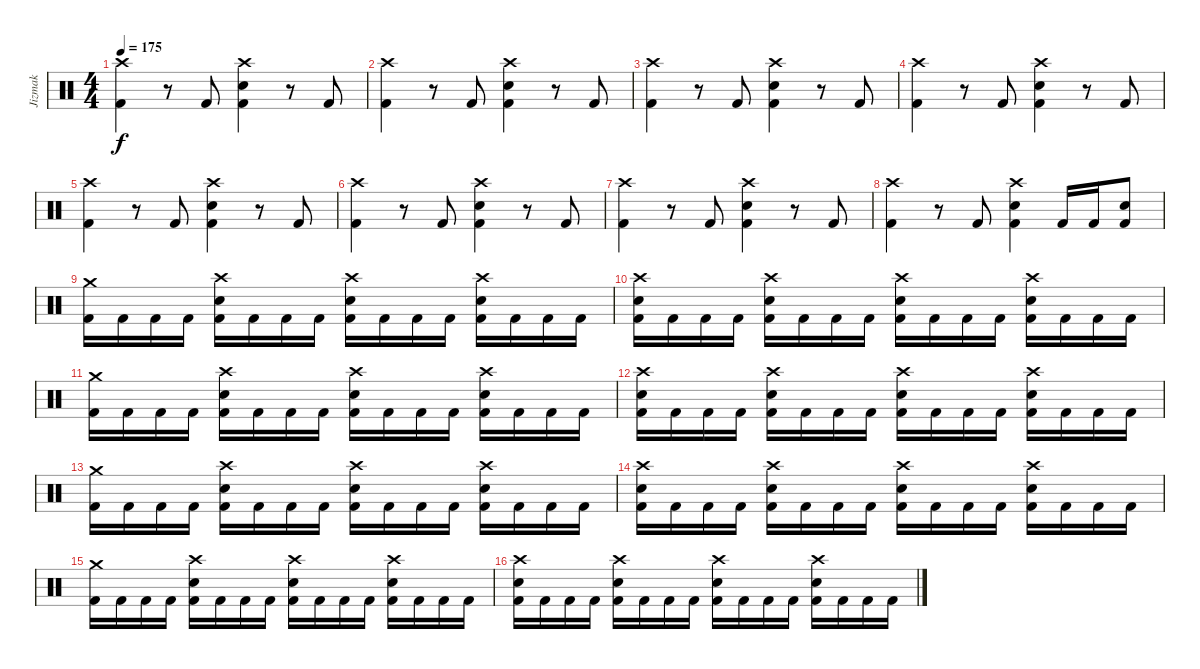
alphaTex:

\track ("Jizmak" "Jizmak") {instrument percussion}
\staff {score}
\articulation defaults
\ts (4 4)
\tempo 175
\clef neutral
\ks c
("Crash high (hit)" "Kick (hit) 2").4{dy f} r.8 "Kick (hit) 2".8 ("Crash high (hit)" "Snare (hit) 2" "Kick (hit) 2").4 r.8 "Kick (hit) 2".8 |
("Crash high (hit)" "Kick (hit) 2").4 r.8 "Kick (hit) 2".8 ("Crash high (hit)" "Snare (hit) 2" "Kick (hit) 2").4 r.8 "Kick (hit) 2".8 |
("Crash high (hit)" "Kick (hit) 2").4 r.8 "Kick (hit) 2".8 ("Crash high (hit)" "Snare (hit) 2" "Kick (hit) 2").4 r.8 "Kick (hit) 2".8 |
("Crash high (hit)" "Kick (hit) 2").4 r.8 "Kick (hit) 2".8 ("Crash high (hit)" "Snare (hit) 2" "Kick (hit) 2").4 r.8 "Kick (hit) 2".8 |
("Crash high (hit)" "Kick (hit) 2").4 r.8 "Kick (hit) 2".8 ("Crash high (hit)" "Snare (hit) 2" "Kick (hit) 2").4 r.8 "Kick (hit) 2".8 |
("Crash high (hit)" "Kick (hit) 2").4 r.8 "Kick (hit) 2".8 ("Crash high (hit)" "Snare (hit) 2" "Kick (hit) 2").4 r.8 "Kick (hit) 2".8 |
("Crash high (hit)" "Kick (hit) 2").4 r.8 "Kick (hit) 2".8 ("Crash high (hit)" "Snare (hit) 2" "Kick (hit) 2").4 r.8 "Kick (hit) 2".8 |
("Crash high (hit)" "Kick (hit) 2").4 r.8 "Kick (hit) 2".8 ("Crash high (hit)" "Snare (hit) 2" "Kick (hit) 2").4 "Kick (hit) 2".16 "Kick (hit) 2".16 ("Snare (hit) 2" "Kick (hit) 2").8 |
("Crash medium (hit)" "Kick (hit) 2").16 "Kick (hit) 2".16 "Kick (hit) 2".16 "Kick (hit) 2".16 ("Crash high (hit)" "Snare (hit) 2" "Kick (hit) 2").16 "Kick (hit) 2".16 "Kick (hit) 2".16 "Kick (hit) 2".16 ("Crash high (hit)" "Snare (hit) 2" "Kick (hit) 2").16 "Kick (hit) 2".16 "Kick (hit) 2".16 "Kick (hit) 2".16 ("Crash high (hit)" "Snare (hit) 2" "Kick (hit) 2").16 "Kick (hit) 2".16 "Kick (hit) 2".16 "Kick (hit) 2".16 |
("Crash high (hit)" "Snare (hit) 2" "Kick (hit) 2").16 "Kick (hit) 2".16 "Kick (hit) 2".16 "Kick (hit) 2".16 ("Crash high (hit)" "Snare (hit) 2" "Kick (hit) 2").16 "Kick (hit) 2".16 "Kick (hit) 2".16 "Kick (hit) 2".16 ("Crash high (hit)" "Snare (hit) 2" "Kick (hit) 2").16 "Kick (hit) 2".16 "Kick (hit) 2".16 "Kick (hit) 2".16 ("Crash high (hit)" "Snare (hit) 2" "Kick (hit) 2").16 "Kick (hit) 2".16 "Kick (hit) 2".16 "Kick (hit) 2".16 |
("Crash medium (hit)" "Kick (hit) 2").16 "Kick (hit) 2".16 "Kick (hit) 2".16 "Kick (hit) 2".16 ("Crash high (hit)" "Snare (hit) 2" "Kick (hit) 2").16 "Kick (hit) 2".16 "Kick (hit) 2".16 "Kick (hit) 2".16 ("Crash high (hit)" "Snare (hit) 2" "Kick (hit) 2").16 "Kick (hit) 2".16 "Kick (hit) 2".16 "Kick (hit) 2".16 ("Crash high (hit)" "Snare (hit) 2" "Kick (hit) 2").16 "Kick (hit) 2".16 "Kick (hit) 2".16 "Kick (hit) 2".16 |
("Crash high (hit)" "Snare (hit) 2" "Kick (hit) 2").16 "Kick (hit) 2".16 "Kick (hit) 2".16 "Kick (hit) 2".16 ("Crash high (hit)" "Snare (hit) 2" "Kick (hit) 2").16 "Kick (hit) 2".16 "Kick (hit) 2".16 "Kick (hit) 2".16 ("Crash high (hit)" "Snare (hit) 2" "Kick (hit) 2").16 "Kick (hit) 2".16 "Kick (hit) 2".16 "Kick (hit) 2".16 ("Crash high (hit)" "Snare (hit) 2" "Kick (hit) 2").16 "Kick (hit) 2".16 "Kick (hit) 2".16 "Kick (hit) 2".16 |
("Crash medium (hit)" "Kick (hit) 2").16 "Kick (hit) 2".16 "Kick (hit) 2".16 "Kick (hit) 2".16 ("Crash high (hit)" "Snare (hit) 2" "Kick (hit) 2").16 "Kick (hit) 2".16 "Kick (hit) 2".16 "Kick (hit) 2".16 ("Crash high (hit)" "Snare (hit) 2" "Kick (hit) 2").16 "Kick (hit) 2".16 "Kick (hit) 2".16 "Kick (hit) 2".16 ("Crash high (hit)" "Snare (hit) 2" "Kick (hit) 2").16 "Kick (hit) 2".16 "Kick (hit) 2".16 "Kick (hit) 2".16 |
("Crash high (hit)" "Snare (hit) 2" "Kick (hit) 2").16 "Kick (hit) 2".16 "Kick (hit) 2".16 "Kick (hit) 2".16 ("Crash high (hit)" "Snare (hit) 2" "Kick (hit) 2").16 "Kick (hit) 2".16 "Kick (hit) 2".16 "Kick (hit) 2".16 ("Crash high (hit)" "Snare (hit) 2" "Kick (hit) 2").16 "Kick (hit) 2".16 "Kick (hit) 2".16 "Kick (hit) 2".16 ("Crash high (hit)" "Snare (hit) 2" "Kick (hit) 2").16 "Kick (hit) 2".16 "Kick (hit) 2".16 "Kick (hit) 2".16 |
("Crash medium (hit)" "Kick (hit) 2").16 "Kick (hit) 2".16 "Kick (hit) 2".16 "Kick (hit) 2".16 ("Crash high (hit)" "Snare (hit) 2" "Kick (hit) 2").16 "Kick (hit) 2".16 "Kick (hit) 2".16 "Kick (hit) 2".16 ("Crash high (hit)" "Snare (hit) 2" "Kick (hit) 2").16 "Kick (hit) 2".16 "Kick (hit) 2".16 "Kick (hit) 2".16 ("Crash high (hit)" "Snare (hit) 2" "Kick (hit) 2").16 "Kick (hit) 2".16 "Kick (hit) 2".16 "Kick (hit) 2".16 |
("Crash high (hit)" "Snare (hit) 2" "Kick (hit) 2").16 "Kick (hit) 2".16 "Kick (hit) 2".16 "Kick (hit) 2".16 ("Crash high (hit)" "Snare (hit) 2" "Kick (hit) 2").16 "Kick (hit) 2".16 "Kick (hit) 2".16 "Kick (hit) 2".16 ("Crash high (hit)" "Snare (hit) 2" "Kick (hit) 2").16 "Kick (hit) 2".16 "Kick (hit) 2".16 "Kick (hit) 2".16 ("Crash high (hit)" "Snare (hit) 2" "Kick (hit) 2").16 "Kick (hit) 2".16 "Kick (hit) 2".16 "Kick (hit) 2".16
